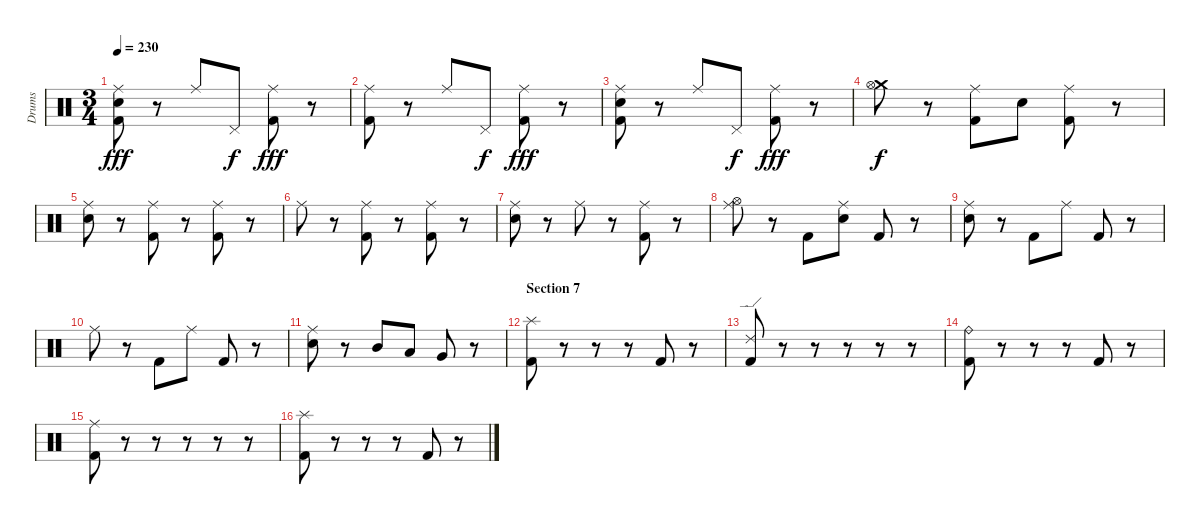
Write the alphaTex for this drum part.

\track ("Drums" "Drums") {instrument percussion}
\staff {score}
\articulation defaults
\ts (3 4)
\tempo 230
\clef neutral
\ks c
("Ride (middle)" "Electric Snare (hit)" "Kick (hit) 2").8{dy fff} r.8 "Ride (middle)".8 "Pedal Hi-Hat (hit)".8{dy f} ("Ride (middle)" "Kick (hit) 2").8{dy fff} r.8 |
("Ride (middle)" "Kick (hit) 2").8 r.8 "Ride (middle)".8 "Pedal Hi-Hat (hit)".8{dy f} ("Ride (middle)" "Kick (hit) 2").8{dy fff} r.8 |
("Ride (middle)" "Electric Snare (hit)" "Kick (hit) 2").8 r.8 "Ride (middle)".8 "Pedal Hi-Hat (hit)".8{dy f} ("Ride (middle)" "Kick (hit) 2").8{dy fff} r.8 |
("Crash medium (hit)" "Hi-Hat (open)").8{dy f} r.8 ("Ride (middle)" "Kick (hit) 2").8 "Electric Snare (hit)".8 ("Ride (middle)" "Kick (hit) 2").8 r.8 |
("Ride (middle)" "Electric Snare (hit)").8 r.8 ("Ride (middle)" "Kick (hit) 2").8 r.8 ("Ride (middle)" "Kick (hit) 2").8 r.8 |
"Ride (middle)".8 r.8 ("Ride (middle)" "Kick (hit) 2").8 r.8 ("Ride (middle)" "Kick (hit) 2").8 r.8 |
("Ride (middle)" "Electric Snare (hit)").8 r.8 "Ride (middle)".8 r.8 ("Ride (middle)" "Kick (hit) 2").8 r.8 |
("Ride (middle)" "Hi-Hat (open)").8 r.8 "Kick (hit) 2".8 ("Ride (middle)" "Electric Snare (hit)").8 "Kick (hit) 2".8 r.8 |
("Ride (middle)" "Electric Snare (hit)").8 r.8 "Kick (hit) 2".8 "Ride (middle)".8 "Kick (hit) 2".8 r.8 |
"Ride (middle)".8 r.8 "Kick (hit) 2".8 "Ride (middle)".8 "Kick (hit) 2".8 r.8 |
("Ride (middle)" "Electric Snare (hit)").8 r.8 "Mid Tom (hit)".8 "Low Tom (hit)".8 "Very Low Tom (hit)".8 r.8 |
\section ("" "Section 7")
("Splash (hit)" "Kick (hit) 2").8 r.8 r.8 r.8 "Kick (hit) 2".8 r.8 |
("Ride (edge) 2" "Kick (hit) 2").8 r.8 r.8 r.8 r.8 r.8 |
("Ride (bell)" "Kick (hit) 2").8 r.8 r.8 r.8 "Kick (hit) 2".8 r.8 |
("Ride (middle)" "Kick (hit) 2").8 r.8 r.8 r.8 r.8 r.8 |
("Splash (hit)" "Kick (hit) 2").8 r.8 r.8 r.8 "Kick (hit) 2".8 r.8
